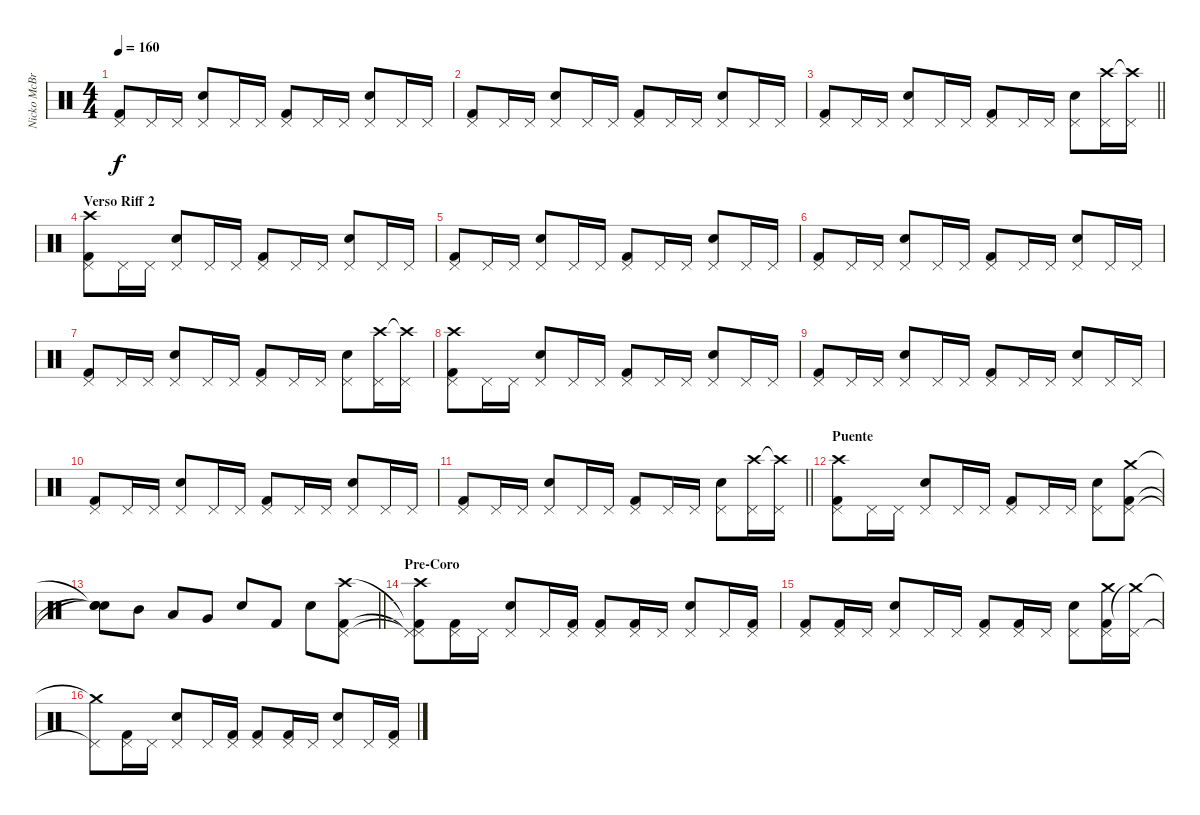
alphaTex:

\track ("Nicko McBrain" "Nicko McBr") {instrument percussion}
\staff {score}
\articulation defaults
\ts (4 4)
\tempo 160
\clef neutral
\ks c
("Kick (hit) 2" "Pedal Hi-Hat (hit)").8{dy f} "Pedal Hi-Hat (hit)".16 "Pedal Hi-Hat (hit)".16 ("Snare (hit) 2" "Pedal Hi-Hat (hit)").8 "Pedal Hi-Hat (hit)".16 "Pedal Hi-Hat (hit)".16 ("Kick (hit) 2" "Pedal Hi-Hat (hit)").8 "Pedal Hi-Hat (hit)".16 "Pedal Hi-Hat (hit)".16 ("Snare (hit) 2" "Pedal Hi-Hat (hit)").8 "Pedal Hi-Hat (hit)".16 "Pedal Hi-Hat (hit)".16 |
("Kick (hit) 2" "Pedal Hi-Hat (hit)").8 "Pedal Hi-Hat (hit)".16 "Pedal Hi-Hat (hit)".16 ("Snare (hit) 2" "Pedal Hi-Hat (hit)").8 "Pedal Hi-Hat (hit)".16 "Pedal Hi-Hat (hit)".16 ("Kick (hit) 2" "Pedal Hi-Hat (hit)").8 "Pedal Hi-Hat (hit)".16 "Pedal Hi-Hat (hit)".16 ("Snare (hit) 2" "Pedal Hi-Hat (hit)").8 "Pedal Hi-Hat (hit)".16 "Pedal Hi-Hat (hit)".16 |
\barLineRight lightlight
("Kick (hit) 2" "Pedal Hi-Hat (hit)").8 "Pedal Hi-Hat (hit)".16 "Pedal Hi-Hat (hit)".16 ("Snare (hit) 2" "Pedal Hi-Hat (hit)").8 "Pedal Hi-Hat (hit)".16 "Pedal Hi-Hat (hit)".16 ("Kick (hit) 2" "Pedal Hi-Hat (hit)").8 "Pedal Hi-Hat (hit)".16 "Pedal Hi-Hat (hit)".16 ("Snare (hit) 2" "Pedal Hi-Hat (hit)").8 ("Pedal Hi-Hat (hit)" "Crash high (hit)").16 ("Pedal Hi-Hat (hit)" "Crash high (hit)"{t}).16 |
\section ("" "Verso Riff 2")
("Kick (hit) 2" "Pedal Hi-Hat (hit)" "Crash high (hit)").8 "Pedal Hi-Hat (hit)".16 "Pedal Hi-Hat (hit)".16 ("Snare (hit) 2" "Pedal Hi-Hat (hit)").8 "Pedal Hi-Hat (hit)".16 "Pedal Hi-Hat (hit)".16 ("Kick (hit) 2" "Pedal Hi-Hat (hit)").8 "Pedal Hi-Hat (hit)".16 "Pedal Hi-Hat (hit)".16 ("Snare (hit) 2" "Pedal Hi-Hat (hit)").8 "Pedal Hi-Hat (hit)".16 "Pedal Hi-Hat (hit)".16 |
("Kick (hit) 2" "Pedal Hi-Hat (hit)").8 "Pedal Hi-Hat (hit)".16 "Pedal Hi-Hat (hit)".16 ("Snare (hit) 2" "Pedal Hi-Hat (hit)").8 "Pedal Hi-Hat (hit)".16 "Pedal Hi-Hat (hit)".16 ("Kick (hit) 2" "Pedal Hi-Hat (hit)").8 "Pedal Hi-Hat (hit)".16 "Pedal Hi-Hat (hit)".16 ("Snare (hit) 2" "Pedal Hi-Hat (hit)").8 "Pedal Hi-Hat (hit)".16 "Pedal Hi-Hat (hit)".16 |
("Kick (hit) 2" "Pedal Hi-Hat (hit)").8 "Pedal Hi-Hat (hit)".16 "Pedal Hi-Hat (hit)".16 ("Snare (hit) 2" "Pedal Hi-Hat (hit)").8 "Pedal Hi-Hat (hit)".16 "Pedal Hi-Hat (hit)".16 ("Kick (hit) 2" "Pedal Hi-Hat (hit)").8 "Pedal Hi-Hat (hit)".16 "Pedal Hi-Hat (hit)".16 ("Snare (hit) 2" "Pedal Hi-Hat (hit)").8 "Pedal Hi-Hat (hit)".16 "Pedal Hi-Hat (hit)".16 |
("Kick (hit) 2" "Pedal Hi-Hat (hit)").8 "Pedal Hi-Hat (hit)".16 "Pedal Hi-Hat (hit)".16 ("Snare (hit) 2" "Pedal Hi-Hat (hit)").8 "Pedal Hi-Hat (hit)".16 "Pedal Hi-Hat (hit)".16 ("Kick (hit) 2" "Pedal Hi-Hat (hit)").8 "Pedal Hi-Hat (hit)".16 "Pedal Hi-Hat (hit)".16 ("Snare (hit) 2" "Pedal Hi-Hat (hit)").8 ("Pedal Hi-Hat (hit)" "Crash high (hit)").16 ("Pedal Hi-Hat (hit)" "Crash high (hit)"{t}).16 |
("Kick (hit) 2" "Pedal Hi-Hat (hit)" "Crash high (hit)").8 "Pedal Hi-Hat (hit)".16 "Pedal Hi-Hat (hit)".16 ("Snare (hit) 2" "Pedal Hi-Hat (hit)").8 "Pedal Hi-Hat (hit)".16 "Pedal Hi-Hat (hit)".16 ("Kick (hit) 2" "Pedal Hi-Hat (hit)").8 "Pedal Hi-Hat (hit)".16 "Pedal Hi-Hat (hit)".16 ("Snare (hit) 2" "Pedal Hi-Hat (hit)").8 "Pedal Hi-Hat (hit)".16 "Pedal Hi-Hat (hit)".16 |
("Kick (hit) 2" "Pedal Hi-Hat (hit)").8 "Pedal Hi-Hat (hit)".16 "Pedal Hi-Hat (hit)".16 ("Snare (hit) 2" "Pedal Hi-Hat (hit)").8 "Pedal Hi-Hat (hit)".16 "Pedal Hi-Hat (hit)".16 ("Kick (hit) 2" "Pedal Hi-Hat (hit)").8 "Pedal Hi-Hat (hit)".16 "Pedal Hi-Hat (hit)".16 ("Snare (hit) 2" "Pedal Hi-Hat (hit)").8 "Pedal Hi-Hat (hit)".16 "Pedal Hi-Hat (hit)".16 |
("Kick (hit) 2" "Pedal Hi-Hat (hit)").8 "Pedal Hi-Hat (hit)".16 "Pedal Hi-Hat (hit)".16 ("Snare (hit) 2" "Pedal Hi-Hat (hit)").8 "Pedal Hi-Hat (hit)".16 "Pedal Hi-Hat (hit)".16 ("Kick (hit) 2" "Pedal Hi-Hat (hit)").8 "Pedal Hi-Hat (hit)".16 "Pedal Hi-Hat (hit)".16 ("Snare (hit) 2" "Pedal Hi-Hat (hit)").8 "Pedal Hi-Hat (hit)".16 "Pedal Hi-Hat (hit)".16 |
\barLineRight lightlight
("Kick (hit) 2" "Pedal Hi-Hat (hit)").8 "Pedal Hi-Hat (hit)".16 "Pedal Hi-Hat (hit)".16 ("Snare (hit) 2" "Pedal Hi-Hat (hit)").8 "Pedal Hi-Hat (hit)".16 "Pedal Hi-Hat (hit)".16 ("Kick (hit) 2" "Pedal Hi-Hat (hit)").8 "Pedal Hi-Hat (hit)".16 "Pedal Hi-Hat (hit)".16 ("Snare (hit) 2" "Pedal Hi-Hat (hit)").8 ("Pedal Hi-Hat (hit)" "Crash high (hit)").16 ("Pedal Hi-Hat (hit)" "Crash high (hit)"{t}).16 |
\section ("" "Puente")
("Kick (hit) 2" "Pedal Hi-Hat (hit)" "Crash high (hit)").8 "Pedal Hi-Hat (hit)".16 "Pedal Hi-Hat (hit)".16 ("Snare (hit) 2" "Pedal Hi-Hat (hit)").8 "Pedal Hi-Hat (hit)".16 "Pedal Hi-Hat (hit)".16 ("Kick (hit) 2" "Pedal Hi-Hat (hit)").8 "Pedal Hi-Hat (hit)".16 "Pedal Hi-Hat (hit)".16 ("Snare (hit) 2" "Pedal Hi-Hat (hit)").8 ("Kick (hit) 2" "Pedal Hi-Hat (hit)" "Crash medium (hit)").8 |
\barLineRight lightlight
("Snare (hit)"{t} "Snare (hit)"{t} "Snare (hit)"{t}).8 "Mid Tom (hit)".8 "Low Tom (hit)".8 "Very Low Tom (hit)".8 "Snare (hit) 2".8 "Kick (hit) 2".8 "Snare (hit) 2".8 ("Pedal Hi-Hat (hit)" "Kick (hit) 2" "Crash high (hit)").8 |
\section ("" "Pre-Coro")
("Pedal Hi-Hat (hit)"{t} "Pedal Hi-Hat (hit)"{t} "Kick (hit) 2"{t} "Crash high (hit)").8 ("Pedal Hi-Hat (hit)" "Kick (hit) 2").16 "Pedal Hi-Hat (hit)".16 ("Pedal Hi-Hat (hit)" "Snare (hit) 2").8 "Pedal Hi-Hat (hit)".16 ("Pedal Hi-Hat (hit)" "Kick (hit) 2").16 ("Pedal Hi-Hat (hit)" "Kick (hit) 2").8 ("Pedal Hi-Hat (hit)" "Kick (hit) 2").16 "Pedal Hi-Hat (hit)".16 ("Pedal Hi-Hat (hit)" "Snare (hit) 2").8 "Pedal Hi-Hat (hit)".16 ("Pedal Hi-Hat (hit)" "Kick (hit) 2").16 |
("Pedal Hi-Hat (hit)" "Kick (hit) 2").8 ("Pedal Hi-Hat (hit)" "Kick (hit) 2").16 "Pedal Hi-Hat (hit)".16 ("Pedal Hi-Hat (hit)" "Snare (hit) 2").8 "Pedal Hi-Hat (hit)".16 "Pedal Hi-Hat (hit)".16 ("Pedal Hi-Hat (hit)" "Kick (hit) 2").8 ("Pedal Hi-Hat (hit)" "Kick (hit) 2").16 "Pedal Hi-Hat (hit)".16 ("Pedal Hi-Hat (hit)" "Snare (hit) 2").8 ("Pedal Hi-Hat (hit)" "Kick (hit) 2" "Crash medium (hit)").16 ("Pedal Hi-Hat (hit)" "Crash medium (hit)"{t}).16 |
("Pedal Hi-Hat (hit)"{t} "Crash medium (hit)"{t}).8 ("Pedal Hi-Hat (hit)" "Kick (hit) 2").16 "Pedal Hi-Hat (hit)".16 ("Pedal Hi-Hat (hit)" "Snare (hit) 2").8 "Pedal Hi-Hat (hit)".16 ("Pedal Hi-Hat (hit)" "Kick (hit) 2").16 ("Pedal Hi-Hat (hit)" "Kick (hit) 2").8 ("Pedal Hi-Hat (hit)" "Kick (hit) 2").16 "Pedal Hi-Hat (hit)".16 ("Pedal Hi-Hat (hit)" "Snare (hit) 2").8 "Pedal Hi-Hat (hit)".16 ("Pedal Hi-Hat (hit)" "Kick (hit) 2").16
